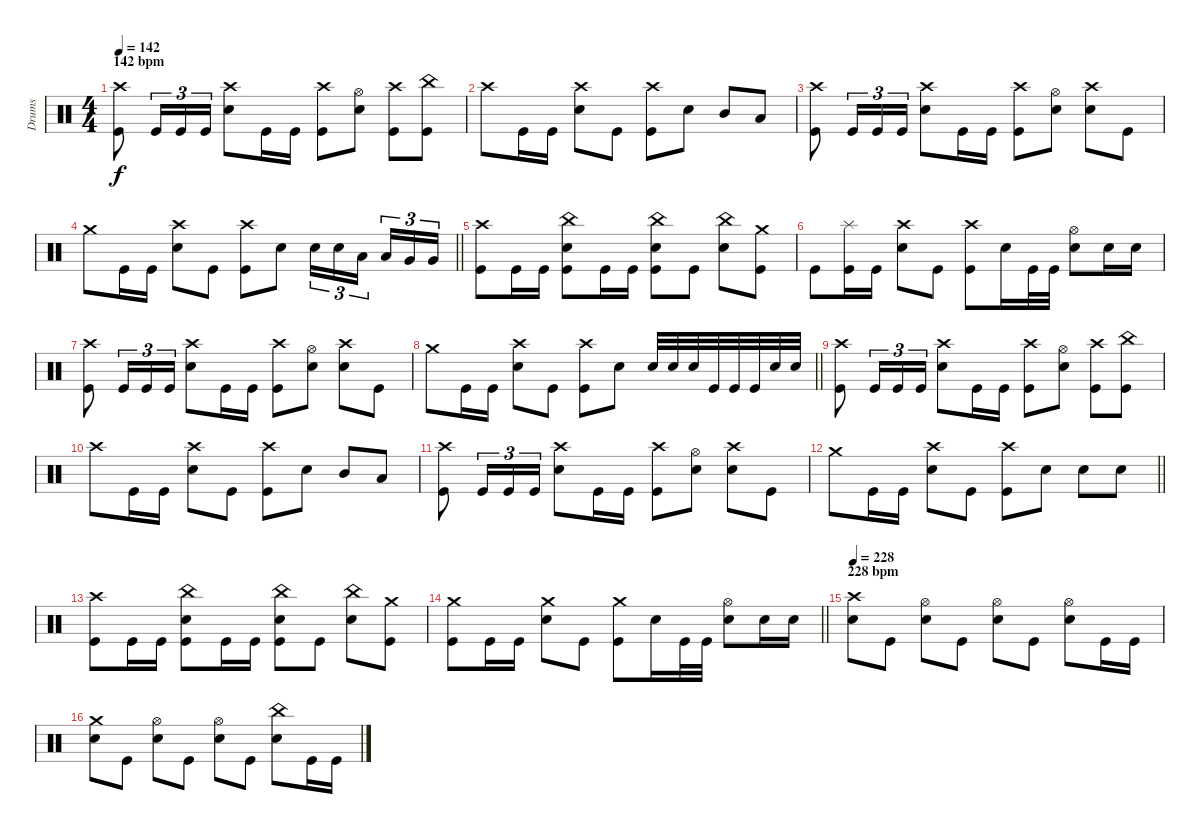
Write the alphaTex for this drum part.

\track ("Drums" "Drums") {instrument percussion}
\staff
\articulation defaults
\ts (4 4)
\section ("" "142 bpm")
\tempo 142
\clef neutral
\ks c
("Crash high (hit)" "Kick (hit)").8{dy f} "Kick (hit)".16{tu (3 2)} "Kick (hit)".16{tu (3 2)} "Kick (hit)".16{tu (3 2)} ("Crash high (hit)" "Electric Snare (hit)").8 "Kick (hit)".16 "Kick (hit)".16 ("Crash high (hit)" "Kick (hit)").8 ("Hi-Hat (open)" "Electric Snare (hit)").8 ("Crash high (hit)" "Kick (hit)").8 ("China (hit)" "Kick (hit)").8 |
"Crash high (hit)".8 "Kick (hit)".16 "Kick (hit)".16 ("Crash high (hit)" "Electric Snare (hit)").8 "Kick (hit)".8 ("Crash high (hit)" "Kick (hit)").8 "Electric Snare (hit)".8 "Mid Tom (hit)".8 "Low Tom (hit)".8 |
("Crash high (hit)" "Kick (hit)").8 "Kick (hit)".16{tu (3 2)} "Kick (hit)".16{tu (3 2)} "Kick (hit)".16{tu (3 2)} ("Crash high (hit)" "Electric Snare (hit)").8 "Kick (hit)".16 "Kick (hit)".16 ("Crash high (hit)" "Kick (hit)").8 ("Hi-Hat (open)" "Electric Snare (hit)").8 ("Crash high (hit)" "Electric Snare (hit)").8 "Kick (hit)".8 |
\barLineRight lightlight "Crash medium (hit)".8 "Kick (hit)".16 "Kick (hit)".16
("Crash high (hit)" "Electric Snare (hit)").8 "Kick (hit)".8 ("Crash high (hit)" "Kick (hit)").8 "Electric Snare (hit)".8 "Electric Snare (hit)".16{tu (3 2)} "Electric Snare (hit)".16{tu (3 2)} "Low Tom (hit)".16{tu (3 2) beam splitsecondary} "Low Tom (hit)".16{tu (3 2)} "Very Low Tom (hit)".16{tu (3 2)} "Very Low Tom (hit)".16{tu (3 2)} |
("Crash high (hit)" "Kick (hit)").8 "Kick (hit)".16 "Kick (hit)".16 ("China (hit)" "Electric Snare (hit)" "Kick (hit)").8 "Kick (hit)".16 "Kick (hit)".16 ("China (hit)" "Electric Snare (hit)" "Kick (hit)").8 "Kick (hit)".8 ("China (hit)" "Electric Snare (hit)").8 ("Crash medium (hit)" "Kick (hit)").8 |
"Kick (hit)".8 ("Splash (hit)" "Kick (hit)").16 "Kick (hit)".16 ("Crash high (hit)" "Electric Snare (hit)").8 "Kick (hit)".8 ("Crash high (hit)" "Kick (hit)").8 "Electric Snare (hit)".16 "Kick (hit)".32 "Kick (hit)".32 ("Hi-Hat (open)" "Electric Snare (hit)").8 "Electric Snare (hit)".16 "Electric Snare (hit)".16 |
("Crash high (hit)" "Kick (hit)").8 "Kick (hit)".16{tu (3 2)} "Kick (hit)".16{tu (3 2)} "Kick (hit)".16{tu (3 2)} ("Crash high (hit)" "Electric Snare (hit)").8 "Kick (hit)".16 "Kick (hit)".16 ("Crash high (hit)" "Kick (hit)").8 ("Hi-Hat (open)" "Electric Snare (hit)").8 ("Crash high (hit)" "Electric Snare (hit)").8 "Kick (hit)".8 |
\barLineRight lightlight "Crash medium (hit)".8 "Kick (hit)".16 "Kick (hit)".16
("Crash high (hit)" "Electric Snare (hit)").8 "Kick (hit)".8 ("Crash high (hit)" "Kick (hit)").8 "Electric Snare (hit)".8 "Electric Snare (hit)".32 "Electric Snare (hit)".32 "Electric Snare (hit)".32 "Kick (hit)".32 "Kick (hit)".32 "Kick (hit)".32 "Electric Snare (hit)".32 "Electric Snare (hit)".32 |
("Crash high (hit)" "Kick (hit)").8 "Kick (hit)".16{tu (3 2)} "Kick (hit)".16{tu (3 2)} "Kick (hit)".16{tu (3 2)} ("Crash high (hit)" "Electric Snare (hit)").8 "Kick (hit)".16 "Kick (hit)".16 ("Crash high (hit)" "Kick (hit)").8 ("Hi-Hat (open)" "Electric Snare (hit)").8 ("Crash high (hit)" "Kick (hit)").8 ("China (hit)" "Kick (hit)").8 |
"Crash high (hit)".8 "Kick (hit)".16 "Kick (hit)".16 ("Crash high (hit)" "Electric Snare (hit)").8 "Kick (hit)".8 ("Crash high (hit)" "Kick (hit)").8 "Electric Snare (hit)".8 "Mid Tom (hit)".8 "Low Tom (hit)".8 |
("Crash high (hit)" "Kick (hit)").8 "Kick (hit)".16{tu (3 2)} "Kick (hit)".16{tu (3 2)} "Kick (hit)".16{tu (3 2)} ("Crash high (hit)" "Electric Snare (hit)").8 "Kick (hit)".16 "Kick (hit)".16 ("Crash high (hit)" "Kick (hit)").8 ("Hi-Hat (open)" "Electric Snare (hit)").8 ("Crash high (hit)" "Electric Snare (hit)").8 "Kick (hit)".8 |
\barLineRight lightlight "Crash medium (hit)".8 "Kick (hit)".16 "Kick (hit)".16
("Crash high (hit)" "Electric Snare (hit)").8 "Kick (hit)".8 ("Crash high (hit)" "Kick (hit)").8 "Electric Snare (hit)".8 "Electric Snare (hit)".8 "Electric Snare (hit)".8 |
("Crash high (hit)" "Kick (hit)").8 "Kick (hit)".16 "Kick (hit)".16 ("China (hit)" "Electric Snare (hit)" "Kick (hit)").8 "Kick (hit)".16 "Kick (hit)".16 ("China (hit)" "Electric Snare (hit)" "Kick (hit)").8 "Kick (hit)".8 ("China (hit)" "Electric Snare (hit)").8 ("Crash medium (hit)" "Kick (hit)").8 |
\barLineRight lightlight
("Crash medium (hit)" "Kick (hit)").8 "Kick (hit)".16 "Kick (hit)".16 ("Crash medium (hit)" "Electric Snare (hit)").8 "Kick (hit)".8 ("Crash medium (hit)" "Kick (hit)").8 "Electric Snare (hit)".16 "Kick (hit)".32 "Kick (hit)".32 ("Hi-Hat (open)" "Electric Snare (hit)").8 "Electric Snare (hit)".16 "Electric Snare (hit)".16 |
\section ("" "228 bpm")
\tempo 228
("Crash high (hit)" "Electric Snare (hit)").8 "Kick (hit)".8 ("Hi-Hat (open)" "Electric Snare (hit)").8 "Kick (hit)".8 ("Hi-Hat (open)" "Electric Snare (hit)").8 "Kick (hit)".8 ("Hi-Hat (open)" "Electric Snare (hit)").8 "Kick (hit)".16 "Kick (hit)".16 |
("Crash medium (hit)" "Electric Snare (hit)").8 "Kick (hit)".8 ("Hi-Hat (open)" "Electric Snare (hit)").8 "Kick (hit)".8 ("Hi-Hat (open)" "Electric Snare (hit)").8 "Kick (hit)".8 ("China (hit)" "Electric Snare (hit)").8 "Kick (hit)".16 "Kick (hit)".16
